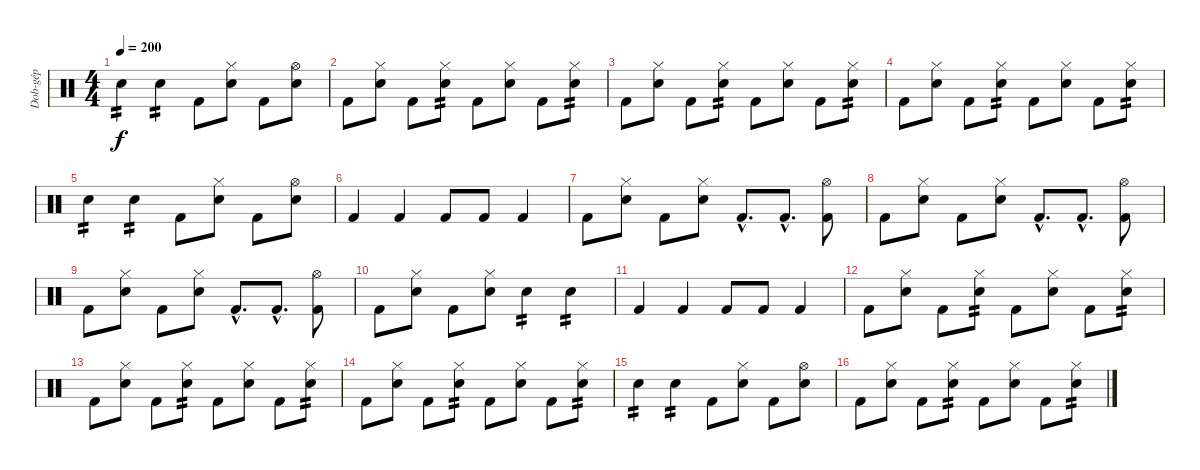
\track ("Dob-gép" "Dob-gép") {instrument percussion}
\staff {score}
\articulation defaults
\ts (4 4)
\tempo 200
\clef neutral
\ks c "Snare (hit) 2".4{tp 2 dy f} "Snare (hit) 2".4{tp 2} "Kick (hit) 2".8
("Hi-Hat (closed)" "Snare (hit) 2").8 "Kick (hit) 2".8 ("Hi-Hat (open)" "Snare (hit) 2").8 |
"Kick (hit) 2".8 ("Hi-Hat (closed)" "Snare (hit) 2").8 "Kick (hit) 2".8 ("Hi-Hat (closed)" "Snare (hit) 2").8{tp 2} "Kick (hit) 2".8 ("Hi-Hat (closed)" "Snare (hit) 2").8 "Kick (hit) 2".8 ("Hi-Hat (closed)" "Snare (hit) 2").8{tp 2} |
"Kick (hit) 2".8 ("Hi-Hat (closed)" "Snare (hit) 2").8 "Kick (hit) 2".8 ("Hi-Hat (closed)" "Snare (hit) 2").8{tp 2} "Kick (hit) 2".8 ("Hi-Hat (closed)" "Snare (hit) 2").8 "Kick (hit) 2".8 ("Hi-Hat (closed)" "Snare (hit) 2").8{tp 2} |
"Kick (hit) 2".8 ("Hi-Hat (closed)" "Snare (hit) 2").8 "Kick (hit) 2".8 ("Hi-Hat (closed)" "Snare (hit) 2").8{tp 2} "Kick (hit) 2".8 ("Hi-Hat (closed)" "Snare (hit) 2").8 "Kick (hit) 2".8 ("Hi-Hat (closed)" "Snare (hit) 2").8{tp 2} |
"Snare (hit) 2".4{tp 2} "Snare (hit) 2".4{tp 2} "Kick (hit) 2".8 ("Hi-Hat (closed)" "Snare (hit) 2").8 "Kick (hit) 2".8 ("Hi-Hat (open)" "Snare (hit) 2").8 |
"Kick (hit) 2".4 "Kick (hit) 2".4 "Kick (hit) 2".8 "Kick (hit) 2".8 "Kick (hit) 2".4 |
"Kick (hit) 2".8 ("Hi-Hat (closed)" "Snare (hit) 2").8 "Kick (hit) 2".8 ("Hi-Hat (closed)" "Snare (hit) 2").8 "Kick (hit) 2"{hac}.8{d} "Kick (hit) 2"{hac}.8{d} ("Hi-Hat (open)" "Kick (hit) 2").8 |
"Kick (hit) 2".8 ("Hi-Hat (closed)" "Snare (hit) 2").8 "Kick (hit) 2".8 ("Hi-Hat (closed)" "Snare (hit) 2").8 "Kick (hit) 2"{hac}.8{d} "Kick (hit) 2"{hac}.8{d} ("Hi-Hat (open)" "Kick (hit) 2").8 |
"Kick (hit) 2".8 ("Hi-Hat (closed)" "Snare (hit) 2").8 "Kick (hit) 2".8 ("Hi-Hat (closed)" "Snare (hit) 2").8 "Kick (hit) 2"{hac}.8{d} "Kick (hit) 2"{hac}.8{d} ("Hi-Hat (open)" "Kick (hit) 2").8 |
"Kick (hit) 2".8 ("Hi-Hat (closed)" "Snare (hit) 2").8 "Kick (hit) 2".8 ("Hi-Hat (closed)" "Snare (hit) 2").8 "Snare (hit) 2".4{tp 2} "Snare (hit) 2".4{tp 2} |
"Kick (hit) 2".4 "Kick (hit) 2".4 "Kick (hit) 2".8 "Kick (hit) 2".8 "Kick (hit) 2".4 |
"Kick (hit) 2".8 ("Hi-Hat (closed)" "Snare (hit) 2").8 "Kick (hit) 2".8 ("Hi-Hat (closed)" "Snare (hit) 2").8{tp 2} "Kick (hit) 2".8 ("Hi-Hat (closed)" "Snare (hit) 2").8 "Kick (hit) 2".8 ("Hi-Hat (closed)" "Snare (hit) 2").8{tp 2} |
"Kick (hit) 2".8 ("Hi-Hat (closed)" "Snare (hit) 2").8 "Kick (hit) 2".8 ("Hi-Hat (closed)" "Snare (hit) 2").8{tp 2} "Kick (hit) 2".8 ("Hi-Hat (closed)" "Snare (hit) 2").8 "Kick (hit) 2".8 ("Hi-Hat (closed)" "Snare (hit) 2").8{tp 2} |
"Kick (hit) 2".8 ("Hi-Hat (closed)" "Snare (hit) 2").8 "Kick (hit) 2".8 ("Hi-Hat (closed)" "Snare (hit) 2").8{tp 2} "Kick (hit) 2".8 ("Hi-Hat (closed)" "Snare (hit) 2").8 "Kick (hit) 2".8 ("Hi-Hat (closed)" "Snare (hit) 2").8{tp 2} |
"Snare (hit) 2".4{tp 2} "Snare (hit) 2".4{tp 2} "Kick (hit) 2".8 ("Hi-Hat (closed)" "Snare (hit) 2").8 "Kick (hit) 2".8 ("Hi-Hat (open)" "Snare (hit) 2").8 |
"Kick (hit) 2".8 ("Hi-Hat (closed)" "Snare (hit) 2").8 "Kick (hit) 2".8 ("Hi-Hat (closed)" "Snare (hit) 2").8{tp 2} "Kick (hit) 2".8 ("Hi-Hat (closed)" "Snare (hit) 2").8 "Kick (hit) 2".8 ("Hi-Hat (closed)" "Snare (hit) 2").8{tp 2}
